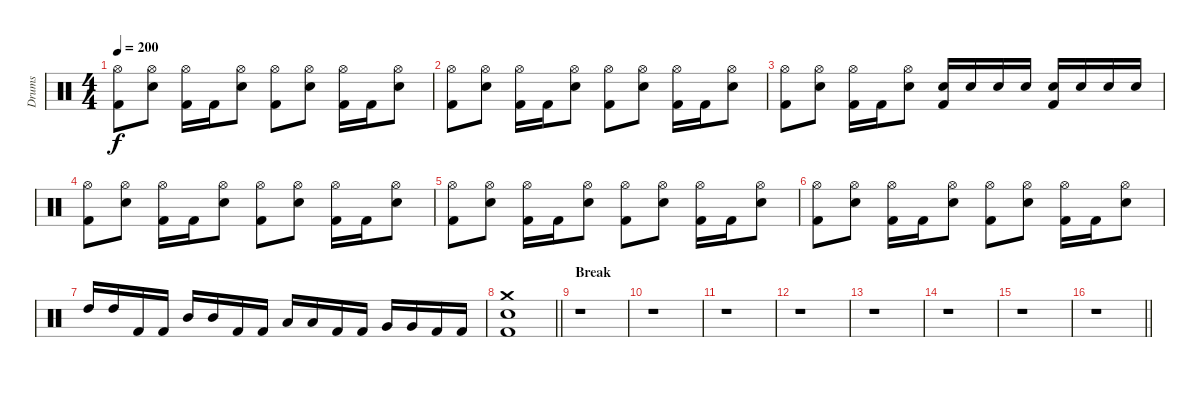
\track ("Drums" "Drums") {instrument percussion}
\staff {score}
\articulation defaults
\ts (4 4)
\tempo 200
\clef neutral
\ks c
("Kick (hit) 2" "Hi-Hat (open)").8{dy f} ("Snare (hit) 2" "Hi-Hat (open)").8 ("Kick (hit) 2" "Hi-Hat (open)").16 "Kick (hit) 2".16 ("Snare (hit) 2" "Hi-Hat (open)").8 ("Kick (hit) 2" "Hi-Hat (open)").8 ("Snare (hit) 2" "Hi-Hat (open)").8 ("Kick (hit) 2" "Hi-Hat (open)").16 "Kick (hit) 2".16 ("Snare (hit) 2" "Hi-Hat (open)").8 |
("Kick (hit) 2" "Hi-Hat (open)").8 ("Snare (hit) 2" "Hi-Hat (open)").8 ("Kick (hit) 2" "Hi-Hat (open)").16 "Kick (hit) 2".16 ("Snare (hit) 2" "Hi-Hat (open)").8 ("Kick (hit) 2" "Hi-Hat (open)").8 ("Snare (hit) 2" "Hi-Hat (open)").8 ("Kick (hit) 2" "Hi-Hat (open)").16 "Kick (hit) 2".16 ("Snare (hit) 2" "Hi-Hat (open)").8 |
("Kick (hit) 2" "Hi-Hat (open)").8 ("Snare (hit) 2" "Hi-Hat (open)").8 ("Kick (hit) 2" "Hi-Hat (open)").16 "Kick (hit) 2".16 ("Snare (hit) 2" "Hi-Hat (open)").8 ("Kick (hit) 2" "Snare (hit) 2").16 "Snare (hit) 2".16 "Snare (hit) 2".16 "Snare (hit) 2".16 ("Kick (hit) 2" "Snare (hit) 2").16 "Snare (hit) 2".16 "Snare (hit) 2".16 "Snare (hit) 2".16 |
("Kick (hit) 2" "Hi-Hat (open)").8 ("Snare (hit) 2" "Hi-Hat (open)").8 ("Kick (hit) 2" "Hi-Hat (open)").16 "Kick (hit) 2".16 ("Snare (hit) 2" "Hi-Hat (open)").8 ("Kick (hit) 2" "Hi-Hat (open)").8 ("Snare (hit) 2" "Hi-Hat (open)").8 ("Kick (hit) 2" "Hi-Hat (open)").16 "Kick (hit) 2".16 ("Snare (hit) 2" "Hi-Hat (open)").8 |
("Kick (hit) 2" "Hi-Hat (open)").8 ("Snare (hit) 2" "Hi-Hat (open)").8 ("Kick (hit) 2" "Hi-Hat (open)").16 "Kick (hit) 2".16 ("Snare (hit) 2" "Hi-Hat (open)").8 ("Kick (hit) 2" "Hi-Hat (open)").8 ("Snare (hit) 2" "Hi-Hat (open)").8 ("Kick (hit) 2" "Hi-Hat (open)").16 "Kick (hit) 2".16 ("Snare (hit) 2" "Hi-Hat (open)").8 |
("Kick (hit) 2" "Hi-Hat (open)").8 ("Snare (hit) 2" "Hi-Hat (open)").8 ("Kick (hit) 2" "Hi-Hat (open)").16 "Kick (hit) 2".16 ("Snare (hit) 2" "Hi-Hat (open)").8 ("Kick (hit) 2" "Hi-Hat (open)").8 ("Snare (hit) 2" "Hi-Hat (open)").8 ("Kick (hit) 2" "Hi-Hat (open)").16 "Kick (hit) 2".16 ("Snare (hit) 2" "Hi-Hat (open)").8 |
"High Tom (hit)".16 "High Tom (hit)".16 "Kick (hit) 2".16 "Kick (hit) 2".16 "Mid Tom (hit)".16 "Mid Tom (hit)".16 "Kick (hit) 2".16 "Kick (hit) 2".16 "Low Tom (hit)".16 "Low Tom (hit)".16 "Kick (hit) 2".16 "Kick (hit) 2".16 "Very Low Tom (hit)".16 "Very Low Tom (hit)".16 "Kick (hit) 2".16 "Kick (hit) 2".16 |
\barLineRight lightlight
("Kick (hit) 2" "Snare (hit) 2" "Crash medium (hit)").1 |
\section ("" "Break")
r.1 |
r.1 |
r.1 |
r.1 |
r.1 |
r.1 |
r.1 |
\barLineRight lightlight
r.1
